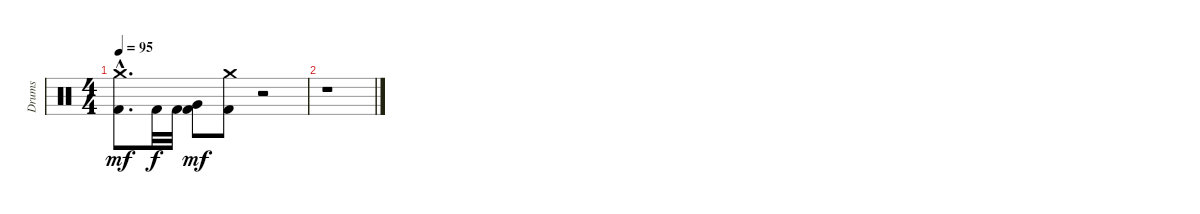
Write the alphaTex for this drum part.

\track ("Drums" "Drums") {instrument percussion}
\staff {score}
\articulation defaults
\ts (4 4)
\tempo 95
\clef neutral
\ks c
("Kick (hit) 2"{hac} "Crash medium (hit)"{hac}).8{d dy mf} "Kick (hit) 2".32{dy f} "Kick (hit) 2".32 ("Kick (hit) 2" "Very Low Tom (hit)").8{dy mf} ("Kick (hit) 2" "Crash medium (hit)").8 r.2 |
r.1
